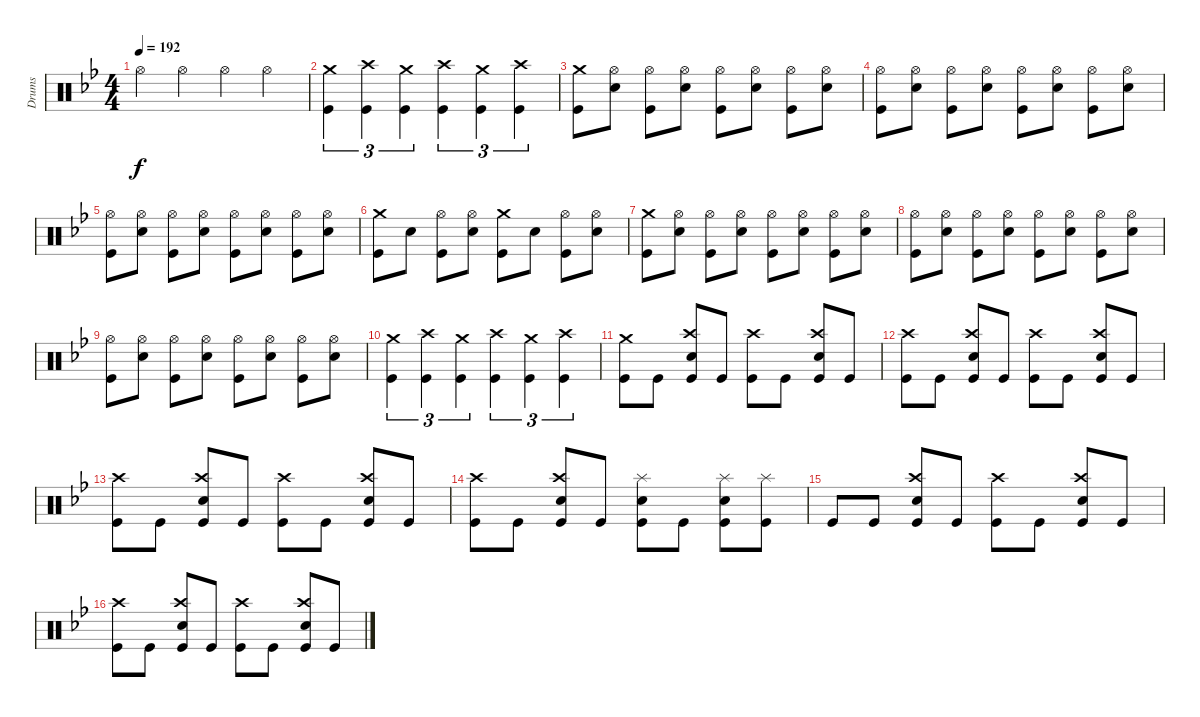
\track ("Drums" "Drums") {instrument percussion}
\staff {score}
\articulation defaults
\ts (4 4)
\tempo 192
\clef neutral
\ks gminor "Hi-Hat (open)".4{dy f} "Hi-Hat (open)".4 "Hi-Hat (open)".4 "Hi-Hat (open)".4
|
("Crash medium (hit)" "Kick (hit)").4{tu (3 2)} ("Crash high (hit)" "Kick (hit)").4{tu (3 2)} ("Crash medium (hit)" "Kick (hit)").4{tu (3 2)} ("Crash high (hit)" "Kick (hit)").4{tu (3 2)} ("Crash medium (hit)" "Kick (hit)").4{tu (3 2)} ("Crash high (hit)" "Kick (hit)").4{tu (3 2)} |
("Crash medium (hit)" "Kick (hit)").8 ("Hi-Hat (open)" "Electric Snare (hit)").8 ("Hi-Hat (open)" "Kick (hit)").8 ("Hi-Hat (open)" "Electric Snare (hit)").8 ("Hi-Hat (open)" "Kick (hit)").8 ("Hi-Hat (open)" "Electric Snare (hit)").8 ("Hi-Hat (open)" "Kick (hit)").8 ("Hi-Hat (open)" "Electric Snare (hit)").8 |
("Hi-Hat (open)" "Kick (hit)").8 ("Hi-Hat (open)" "Electric Snare (hit)").8 ("Hi-Hat (open)" "Kick (hit)").8 ("Hi-Hat (open)" "Electric Snare (hit)").8 ("Hi-Hat (open)" "Kick (hit)").8 ("Hi-Hat (open)" "Electric Snare (hit)").8 ("Hi-Hat (open)" "Kick (hit)").8 ("Hi-Hat (open)" "Electric Snare (hit)").8 |
("Hi-Hat (open)" "Kick (hit)").8 ("Hi-Hat (open)" "Electric Snare (hit)").8 ("Hi-Hat (open)" "Kick (hit)").8 ("Hi-Hat (open)" "Electric Snare (hit)").8 ("Hi-Hat (open)" "Kick (hit)").8 ("Hi-Hat (open)" "Electric Snare (hit)").8 ("Hi-Hat (open)" "Kick (hit)").8 ("Hi-Hat (open)" "Electric Snare (hit)").8 |
("Crash medium (hit)" "Kick (hit)").8 "Electric Snare (hit)".8 ("Hi-Hat (open)" "Kick (hit)").8 ("Hi-Hat (open)" "Electric Snare (hit)").8 ("Crash medium (hit)" "Kick (hit)").8 "Electric Snare (hit)".8 ("Hi-Hat (open)" "Kick (hit)").8 ("Hi-Hat (open)" "Electric Snare (hit)").8 |
("Crash medium (hit)" "Kick (hit)").8 ("Hi-Hat (open)" "Electric Snare (hit)").8 ("Hi-Hat (open)" "Kick (hit)").8 ("Hi-Hat (open)" "Electric Snare (hit)").8 ("Hi-Hat (open)" "Kick (hit)").8 ("Hi-Hat (open)" "Electric Snare (hit)").8 ("Hi-Hat (open)" "Kick (hit)").8 ("Hi-Hat (open)" "Electric Snare (hit)").8 |
("Hi-Hat (open)" "Kick (hit)").8 ("Hi-Hat (open)" "Electric Snare (hit)").8 ("Hi-Hat (open)" "Kick (hit)").8 ("Hi-Hat (open)" "Electric Snare (hit)").8 ("Hi-Hat (open)" "Kick (hit)").8 ("Hi-Hat (open)" "Electric Snare (hit)").8 ("Hi-Hat (open)" "Kick (hit)").8 ("Hi-Hat (open)" "Electric Snare (hit)").8 |
("Hi-Hat (open)" "Kick (hit)").8 ("Hi-Hat (open)" "Electric Snare (hit)").8 ("Hi-Hat (open)" "Kick (hit)").8 ("Hi-Hat (open)" "Electric Snare (hit)").8 ("Hi-Hat (open)" "Kick (hit)").8 ("Hi-Hat (open)" "Electric Snare (hit)").8 ("Hi-Hat (open)" "Kick (hit)").8 ("Hi-Hat (open)" "Electric Snare (hit)").8 |
("Crash medium (hit)" "Kick (hit)").4{tu (3 2)} ("Crash high (hit)" "Kick (hit)").4{tu (3 2)} ("Crash medium (hit)" "Kick (hit)").4{tu (3 2)} ("Crash high (hit)" "Kick (hit)").4{tu (3 2)} ("Crash medium (hit)" "Kick (hit)").4{tu (3 2)} ("Crash high (hit)" "Kick (hit)").4{tu (3 2)} |
("Crash medium (hit)" "Kick (hit)").8 "Kick (hit)".8 ("Crash high (hit)" "Electric Snare (hit)" "Kick (hit)").8 "Kick (hit)".8 ("Crash high (hit)" "Kick (hit)").8 "Kick (hit)".8 ("Crash high (hit)" "Electric Snare (hit)" "Kick (hit)").8 "Kick (hit)".8 |
("Crash high (hit)" "Kick (hit)").8 "Kick (hit)".8 ("Crash high (hit)" "Electric Snare (hit)" "Kick (hit)").8 "Kick (hit)".8 ("Crash high (hit)" "Kick (hit)").8 "Kick (hit)".8 ("Crash high (hit)" "Electric Snare (hit)" "Kick (hit)").8 "Kick (hit)".8 |
("Crash high (hit)" "Kick (hit)").8 "Kick (hit)".8 ("Crash high (hit)" "Electric Snare (hit)" "Kick (hit)").8 "Kick (hit)".8 ("Crash high (hit)" "Kick (hit)").8 "Kick (hit)".8 ("Crash high (hit)" "Electric Snare (hit)" "Kick (hit)").8 "Kick (hit)".8 |
("Crash high (hit)" "Kick (hit)").8 "Kick (hit)".8 ("Crash high (hit)" "Electric Snare (hit)" "Kick (hit)").8 "Kick (hit)".8 ("Splash (hit)" "Electric Snare (hit)" "Kick (hit)").8 "Kick (hit)".8 ("Splash (hit)" "Electric Snare (hit)" "Kick (hit)").8 ("Splash (hit)" "Kick (hit)").8 |
"Kick (hit)".8 "Kick (hit)".8 ("Crash high (hit)" "Electric Snare (hit)" "Kick (hit)").8 "Kick (hit)".8 ("Crash high (hit)" "Kick (hit)").8 "Kick (hit)".8 ("Crash high (hit)" "Electric Snare (hit)" "Kick (hit)").8 "Kick (hit)".8 |
("Crash high (hit)" "Kick (hit)").8 "Kick (hit)".8 ("Crash high (hit)" "Electric Snare (hit)" "Kick (hit)").8 "Kick (hit)".8 ("Crash high (hit)" "Kick (hit)").8 "Kick (hit)".8 ("Crash high (hit)" "Electric Snare (hit)" "Kick (hit)").8 "Kick (hit)".8
